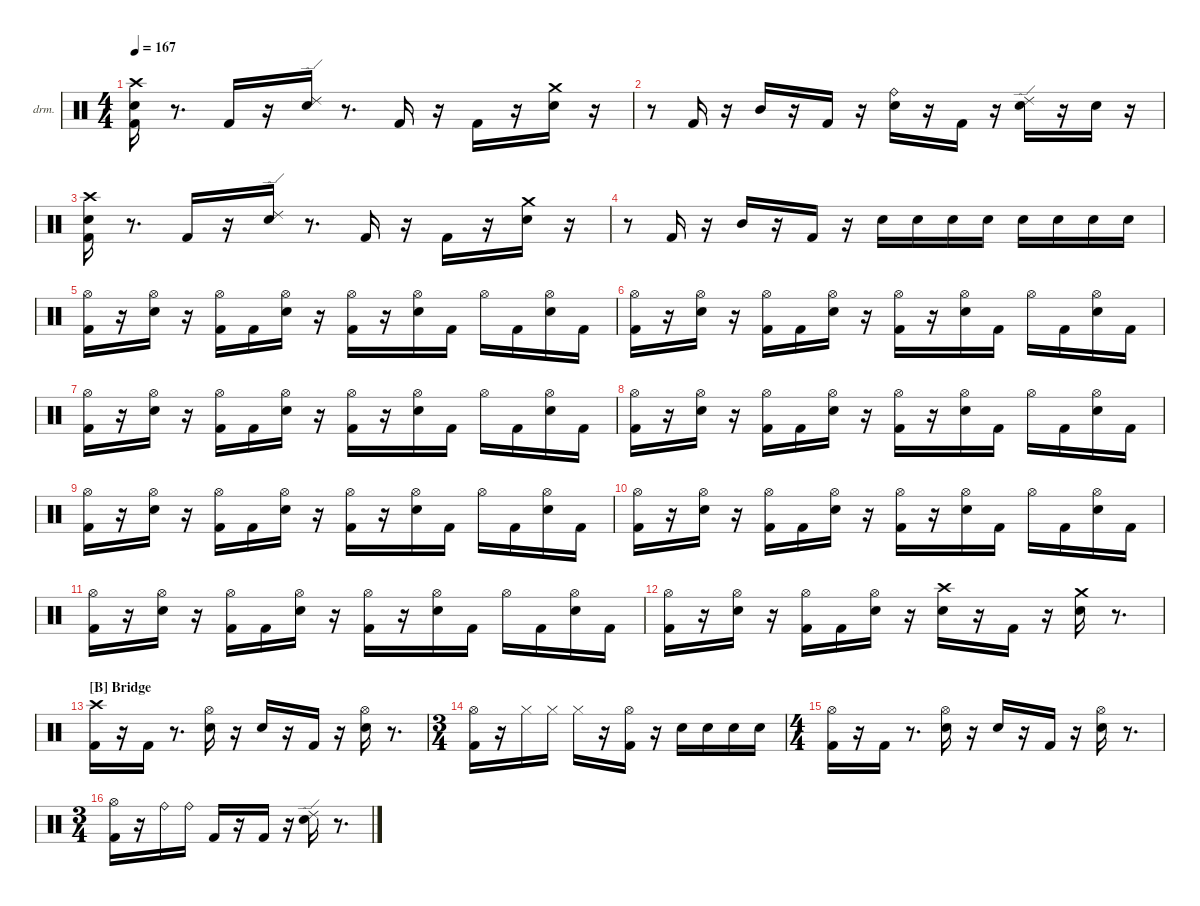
\hideDynamics
\bracketExtendMode nobrackets
\firstSystemTrackNameOrientation horizontal
\otherSystemsTrackNameOrientation horizontal
\track ("Drums" "drm.") {instrument percussion}
\staff {score}
\articulation defaults
\ts (4 4)
\tempo 167
\clef neutral
\ks aminor
("Kick (hit) 2" "Snare (hit) 2" "Crash high (hit)"{acc #}).16{dy ff} r.8{d} "Kick (hit) 2".16 r.16 ("Ride (edge) 2" "Snare (hit) 2").16 r.8{d} "Kick (hit) 2".16{dy mf} r.16 "Kick (hit) 2".16{dy ff} r.16 ("Snare (hit) 2" "Crash medium (hit)").16 r.16 |
r.8 "Kick (hit) 2".16 r.16 "Mid Tom (hit)".16 r.16 "Kick (hit) 2".16 r.16 ("Ride (bell)" "Snare (hit) 2").16{dy fff} r.16 "Kick (hit) 2".16{dy ff} r.16 ("Snare (hit) 2" "Ride (edge) 2").16{dy f} r.16 "Snare (hit) 2".16{dy mf} r.16 |
("Snare (hit) 2" "Kick (hit) 2" "Crash high (hit)"{acc #}).16{dy ff} r.8{d} "Kick (hit) 2".16 r.16 ("Snare (hit) 2" "Ride (edge) 2").16 r.8{d} "Kick (hit) 2".16{dy mf} r.16 "Kick (hit) 2".16{dy ff} r.16 ("Crash medium (hit)" "Snare (hit) 2").16 r.16 |
r.8 "Kick (hit) 2".16 r.16 "Mid Tom (hit)".16 r.16 "Kick (hit) 2".16 r.16 "Snare (hit) 2".16{dy f} "Snare (hit) 2".16{dy mf} "Snare (hit) 2".16{dy ff} "Snare (hit) 2".16{dy mf} "Snare (hit) 2".16{dy ff} "Snare (hit) 2".16{dy f} "Snare (hit) 2".16{dy fff} "Snare (hit) 2".16 |
("Kick (hit) 2" "Hi-Hat (open)"{acc #}).16 r.16 ("Snare (hit) 2" "Hi-Hat (open)"{acc #}).16{dy ff} r.16 ("Kick (hit) 2" "Hi-Hat (open)"{acc #}).16{dy f} "Kick (hit) 2".16{dy ff} ("Snare (hit) 2" "Hi-Hat (open)"{acc #}).16 r.16 ("Hi-Hat (open)"{acc #} "Kick (hit) 2").16 r.16 ("Hi-Hat (open)"{acc #} "Snare (hit) 2").16{dy mf} "Kick (hit) 2".16{dy ff} "Hi-Hat (open)"{acc #}.16 "Kick (hit) 2".16 ("Hi-Hat (open)"{acc #} "Snare (hit) 2").16{dy mf} "Kick (hit) 2".16 |
("Kick (hit) 2" "Hi-Hat (open)"{acc #}).16{dy fff} r.16 ("Snare (hit) 2" "Hi-Hat (open)"{acc #}).16{dy mf} r.16 ("Hi-Hat (open)"{acc #} "Kick (hit) 2").16{dy ff} "Kick (hit) 2".16 ("Snare (hit) 2" "Hi-Hat (open)"{acc #}).16 r.16 ("Hi-Hat (open)"{acc #} "Kick (hit) 2").16 r.16 ("Snare (hit) 2" "Hi-Hat (open)"{acc #}).16 "Kick (hit) 2".16 "Hi-Hat (open)"{acc #}.16 "Kick (hit) 2".16 ("Snare (hit) 2" "Hi-Hat (open)"{acc #}).16 "Kick (hit) 2".16 |
("Kick (hit) 2" "Hi-Hat (open)"{acc #}).16{dy fff} r.16 ("Snare (hit) 2" "Hi-Hat (open)"{acc #}).16{dy ff} r.16 ("Kick (hit) 2" "Hi-Hat (open)"{acc #}).16{dy f} "Kick (hit) 2".16{dy ff} ("Hi-Hat (open)"{acc #} "Snare (hit) 2").16{dy mf} r.16 ("Hi-Hat (open)"{acc #} "Kick (hit) 2").16{dy ff} r.16 ("Snare (hit) 2" "Hi-Hat (open)"{acc #}).16{dy mf} "Kick (hit) 2".16{dy ff} "Hi-Hat (open)"{acc #}.16 "Kick (hit) 2".16 ("Snare (hit) 2" "Hi-Hat (open)"{acc #}).16 "Kick (hit) 2".16{dy mf} |
("Hi-Hat (open)"{acc #} "Kick (hit) 2").16{dy ff} r.16 ("Snare (hit) 2" "Hi-Hat (open)"{acc #}).16{dy mf} r.16 ("Kick (hit) 2" "Hi-Hat (open)"{acc #}).16{dy ff} "Kick (hit) 2".16 ("Snare (hit) 2" "Hi-Hat (open)"{acc #}).16 r.16 ("Kick (hit) 2" "Hi-Hat (open)"{acc #}).16 r.16 ("Snare (hit) 2" "Hi-Hat (open)"{acc #}).16 "Kick (hit) 2".16 "Hi-Hat (open)"{acc #}.16 "Kick (hit) 2".16 ("Snare (hit) 2" "Hi-Hat (open)"{acc #}).16 "Kick (hit) 2".16 |
("Kick (hit) 2" "Hi-Hat (open)"{acc #}).16{dy fff} r.16 ("Hi-Hat (open)"{acc #} "Snare (hit) 2").16{dy mf} r.16 ("Hi-Hat (open)"{acc #} "Kick (hit) 2").16{dy ff} "Kick (hit) 2".16 ("Snare (hit) 2" "Hi-Hat (open)"{acc #}).16 r.16 ("Kick (hit) 2" "Hi-Hat (open)"{acc #}).16 r.16 ("Snare (hit) 2" "Hi-Hat (open)"{acc #}).16 "Kick (hit) 2".16 "Hi-Hat (open)"{acc #}.16 "Kick (hit) 2".16 ("Snare (hit) 2" "Hi-Hat (open)"{acc #}).16 "Kick (hit) 2".16{dy mf} |
("Hi-Hat (open)"{acc #} "Kick (hit) 2").16{dy ff} r.16 ("Snare (hit) 2" "Hi-Hat (open)"{acc #}).16 r.16 ("Kick (hit) 2" "Hi-Hat (open)"{acc #}).16 "Kick (hit) 2".16 ("Hi-Hat (open)"{acc #} "Snare (hit) 2").16{dy mf} r.16 ("Hi-Hat (open)"{acc #} "Kick (hit) 2").16{dy ff} r.16 ("Snare (hit) 2" "Hi-Hat (open)"{acc #}).16 "Kick (hit) 2".16 "Hi-Hat (open)"{acc #}.16 "Kick (hit) 2".16 ("Snare (hit) 2" "Hi-Hat (open)"{acc #}).16 "Kick (hit) 2".16 |
("Hi-Hat (open)"{acc #} "Kick (hit) 2").16{dy fff} r.16 ("Snare (hit) 2" "Hi-Hat (open)"{acc #}).16{dy ff} r.16 ("Hi-Hat (open)"{acc #} "Kick (hit) 2").16{dy f} "Kick (hit) 2".16{dy ff} ("Snare (hit) 2" "Hi-Hat (open)"{acc #}).16 r.16 ("Kick (hit) 2" "Hi-Hat (open)"{acc #}).16 r.16 ("Snare (hit) 2" "Hi-Hat (open)"{acc #}).16 "Kick (hit) 2".16 "Hi-Hat (open)"{acc #}.16 "Kick (hit) 2".16 ("Snare (hit) 2" "Hi-Hat (open)"{acc #}).16 "Kick (hit) 2".16{dy mf} |
("Kick (hit) 2" "Hi-Hat (open)"{acc #}).16{dy fff} r.16 ("Snare (hit) 2" "Hi-Hat (open)"{acc #}).16{dy ff} r.16 ("Kick (hit) 2" "Hi-Hat (open)"{acc #}).16{dy f} "Kick (hit) 2".16{dy fff} ("Hi-Hat (open)"{acc #} "Snare (hit) 2").16{dy mf} r.16 ("Crash high (hit)"{acc #} "Snare (hit) 2").16{dy ff} r.16 "Kick (hit) 2".16{dy f} r.16 ("Snare (hit) 2" "Crash medium (hit)").16 r.8{d} |
\section ("B" "Bridge")
("Kick (hit) 2" "Crash high (hit)"{acc #}).16{dy fff} r.16 "Kick (hit) 2".16{dy f} r.8{d} ("Hi-Hat (open)"{acc #} "Snare (hit) 2").16{dy ff} r.16 "Snare (hit) 2".16{dy p} r.16 "Kick (hit) 2".16{dy ff} r.16 ("Snare (hit) 2" "Hi-Hat (open)"{acc #}).16 r.8{d} |
\ts (3 4)
("Hi-Hat (open)"{acc #} "Kick (hit) 2").16 r.16 "Hi-Hat (closed)"{acc #}.16{dy fff} "Hi-Hat (closed)"{acc #}.16{dy ff} "Hi-Hat (closed)"{acc #}.16{dy fff} r.16 ("Hi-Hat (open)"{acc #} "Kick (hit) 2").16{dy ff} r.16 "Snare (hit) 2".16{dy mp} "Snare (hit) 2".16{dy p} "Snare (hit) 2".16{dy mf} "Snare (hit) 2".16{dy pp} |
\ts (4 4)
("Hi-Hat (open)"{acc #} "Kick (hit) 2").16{dy fff} r.16 "Kick (hit) 2".16{dy f} r.8{d} ("Snare (hit) 2" "Hi-Hat (open)"{acc #}).16{dy ff} r.16 "Snare (hit) 2".16{dy p} r.16 "Kick (hit) 2".16{dy ff} r.16 ("Hi-Hat (open)"{acc #} "Snare (hit) 2").16{dy mf} r.8{d} |
\ts (3 4)
("Kick (hit) 2" "Hi-Hat (open)"{acc #}).16{dy ff} r.16 "Ride (bell)".16{dy fff} "Ride (bell)".16{dy ff} "Kick (hit) 2".16{dy f} r.16 "Kick (hit) 2".16{dy fff} r.16 ("Snare (hit) 2" "Ride (edge) 2").16{dy ff} r.8{d}
